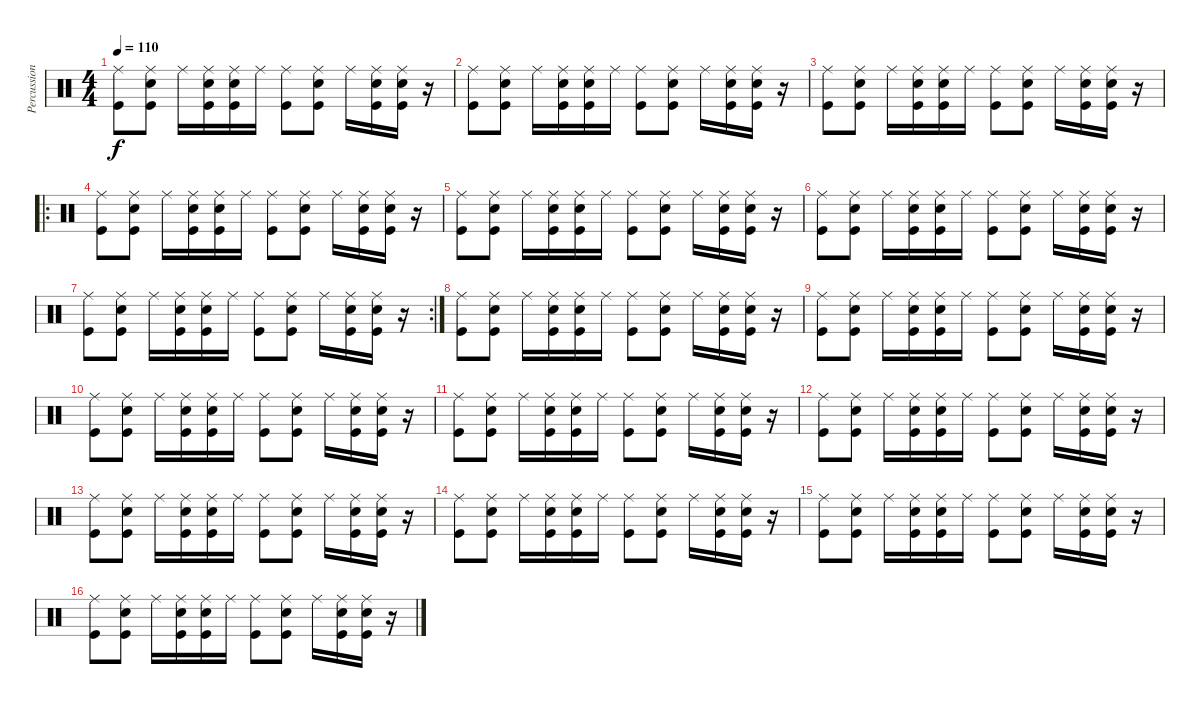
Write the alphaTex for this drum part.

\track ("Percussion" "Percussion") {instrument percussion}
\staff {score}
\articulation defaults
\ts (4 4)
\tempo 110
\clef neutral
\ks c
("Ride (middle)" "Kick (hit)").8{dy f} ("Snare (hit) 2" "Ride (middle)" "Kick (hit)").8 "Ride (middle)".16 ("Snare (hit) 2" "Ride (middle)" "Kick (hit)").16 ("Snare (hit) 2" "Ride (middle)" "Kick (hit)").16 "Ride (middle)".16 ("Ride (middle)" "Kick (hit)").8 ("Snare (hit) 2" "Ride (middle)" "Kick (hit)").8 "Ride (middle)".16 ("Snare (hit) 2" "Ride (middle)" "Kick (hit)").16 ("Snare (hit) 2" "Ride (middle)" "Kick (hit)").16 r.16 |
("Ride (middle)" "Kick (hit)").8 ("Snare (hit) 2" "Ride (middle)" "Kick (hit)").8 "Ride (middle)".16 ("Snare (hit) 2" "Ride (middle)" "Kick (hit)").16 ("Snare (hit) 2" "Ride (middle)" "Kick (hit)").16 "Ride (middle)".16 ("Ride (middle)" "Kick (hit)").8 ("Snare (hit) 2" "Ride (middle)" "Kick (hit)").8 "Ride (middle)".16 ("Snare (hit) 2" "Ride (middle)" "Kick (hit)").16 ("Snare (hit) 2" "Ride (middle)" "Kick (hit)").16 r.16 |
("Ride (middle)" "Kick (hit)").8 ("Snare (hit) 2" "Ride (middle)" "Kick (hit)").8 "Ride (middle)".16 ("Snare (hit) 2" "Ride (middle)" "Kick (hit)").16 ("Snare (hit) 2" "Ride (middle)" "Kick (hit)").16 "Ride (middle)".16 ("Ride (middle)" "Kick (hit)").8 ("Snare (hit) 2" "Ride (middle)" "Kick (hit)").8 "Ride (middle)".16 ("Snare (hit) 2" "Ride (middle)" "Kick (hit)").16 ("Snare (hit) 2" "Ride (middle)" "Kick (hit)").16 r.16 |
\ro
("Ride (middle)" "Kick (hit)").8 ("Snare (hit) 2" "Ride (middle)" "Kick (hit)").8 "Ride (middle)".16 ("Snare (hit) 2" "Ride (middle)" "Kick (hit)").16 ("Snare (hit) 2" "Ride (middle)" "Kick (hit)").16 "Ride (middle)".16 ("Ride (middle)" "Kick (hit)").8 ("Snare (hit) 2" "Ride (middle)" "Kick (hit)").8 "Ride (middle)".16 ("Snare (hit) 2" "Ride (middle)" "Kick (hit)").16 ("Snare (hit) 2" "Ride (middle)" "Kick (hit)").16 r.16 |
("Ride (middle)" "Kick (hit)").8 ("Snare (hit) 2" "Ride (middle)" "Kick (hit)").8 "Ride (middle)".16 ("Snare (hit) 2" "Ride (middle)" "Kick (hit)").16 ("Snare (hit) 2" "Ride (middle)" "Kick (hit)").16 "Ride (middle)".16 ("Ride (middle)" "Kick (hit)").8 ("Snare (hit) 2" "Ride (middle)" "Kick (hit)").8 "Ride (middle)".16 ("Snare (hit) 2" "Ride (middle)" "Kick (hit)").16 ("Snare (hit) 2" "Ride (middle)" "Kick (hit)").16 r.16 |
("Ride (middle)" "Kick (hit)").8 ("Snare (hit) 2" "Ride (middle)" "Kick (hit)").8 "Ride (middle)".16 ("Snare (hit) 2" "Ride (middle)" "Kick (hit)").16 ("Snare (hit) 2" "Ride (middle)" "Kick (hit)").16 "Ride (middle)".16 ("Ride (middle)" "Kick (hit)").8 ("Snare (hit) 2" "Ride (middle)" "Kick (hit)").8 "Ride (middle)".16 ("Snare (hit) 2" "Ride (middle)" "Kick (hit)").16 ("Snare (hit) 2" "Ride (middle)" "Kick (hit)").16 r.16 |
\rc 2
("Ride (middle)" "Kick (hit)").8 ("Snare (hit) 2" "Ride (middle)" "Kick (hit)").8 "Ride (middle)".16 ("Snare (hit) 2" "Ride (middle)" "Kick (hit)").16 ("Snare (hit) 2" "Ride (middle)" "Kick (hit)").16 "Ride (middle)".16 ("Ride (middle)" "Kick (hit)").8 ("Snare (hit) 2" "Ride (middle)" "Kick (hit)").8 "Ride (middle)".16 ("Snare (hit) 2" "Ride (middle)" "Kick (hit)").16 ("Snare (hit) 2" "Ride (middle)" "Kick (hit)").16 r.16 |
("Ride (middle)" "Kick (hit)").8 ("Snare (hit) 2" "Ride (middle)" "Kick (hit)").8 "Ride (middle)".16 ("Snare (hit) 2" "Ride (middle)" "Kick (hit)").16 ("Snare (hit) 2" "Ride (middle)" "Kick (hit)").16 "Ride (middle)".16 ("Ride (middle)" "Kick (hit)").8 ("Snare (hit) 2" "Ride (middle)" "Kick (hit)").8 "Ride (middle)".16 ("Snare (hit) 2" "Ride (middle)" "Kick (hit)").16 ("Snare (hit) 2" "Ride (middle)" "Kick (hit)").16 r.16 |
("Ride (middle)" "Kick (hit)").8 ("Snare (hit) 2" "Ride (middle)" "Kick (hit)").8 "Ride (middle)".16 ("Snare (hit) 2" "Ride (middle)" "Kick (hit)").16 ("Snare (hit) 2" "Ride (middle)" "Kick (hit)").16 "Ride (middle)".16 ("Ride (middle)" "Kick (hit)").8 ("Snare (hit) 2" "Ride (middle)" "Kick (hit)").8 "Ride (middle)".16 ("Snare (hit) 2" "Ride (middle)" "Kick (hit)").16 ("Snare (hit) 2" "Ride (middle)" "Kick (hit)").16 r.16 |
("Ride (middle)" "Kick (hit)").8 ("Snare (hit) 2" "Ride (middle)" "Kick (hit)").8 "Ride (middle)".16 ("Snare (hit) 2" "Ride (middle)" "Kick (hit)").16 ("Snare (hit) 2" "Ride (middle)" "Kick (hit)").16 "Ride (middle)".16 ("Ride (middle)" "Kick (hit)").8 ("Snare (hit) 2" "Ride (middle)" "Kick (hit)").8 "Ride (middle)".16 ("Snare (hit) 2" "Ride (middle)" "Kick (hit)").16 ("Snare (hit) 2" "Ride (middle)" "Kick (hit)").16 r.16 |
("Ride (middle)" "Kick (hit)").8 ("Snare (hit) 2" "Ride (middle)" "Kick (hit)").8 "Ride (middle)".16 ("Snare (hit) 2" "Ride (middle)" "Kick (hit)").16 ("Snare (hit) 2" "Ride (middle)" "Kick (hit)").16 "Ride (middle)".16 ("Ride (middle)" "Kick (hit)").8 ("Snare (hit) 2" "Ride (middle)" "Kick (hit)").8 "Ride (middle)".16 ("Snare (hit) 2" "Ride (middle)" "Kick (hit)").16 ("Snare (hit) 2" "Ride (middle)" "Kick (hit)").16 r.16 |
("Ride (middle)" "Kick (hit)").8 ("Snare (hit) 2" "Ride (middle)" "Kick (hit)").8 "Ride (middle)".16 ("Snare (hit) 2" "Ride (middle)" "Kick (hit)").16 ("Snare (hit) 2" "Ride (middle)" "Kick (hit)").16 "Ride (middle)".16 ("Ride (middle)" "Kick (hit)").8 ("Snare (hit) 2" "Ride (middle)" "Kick (hit)").8 "Ride (middle)".16 ("Snare (hit) 2" "Ride (middle)" "Kick (hit)").16 ("Snare (hit) 2" "Ride (middle)" "Kick (hit)").16 r.16 |
("Ride (middle)" "Kick (hit)").8 ("Snare (hit) 2" "Ride (middle)" "Kick (hit)").8 "Ride (middle)".16 ("Snare (hit) 2" "Ride (middle)" "Kick (hit)").16 ("Snare (hit) 2" "Ride (middle)" "Kick (hit)").16 "Ride (middle)".16 ("Ride (middle)" "Kick (hit)").8 ("Snare (hit) 2" "Ride (middle)" "Kick (hit)").8 "Ride (middle)".16 ("Snare (hit) 2" "Ride (middle)" "Kick (hit)").16 ("Snare (hit) 2" "Ride (middle)" "Kick (hit)").16 r.16 |
("Ride (middle)" "Kick (hit)").8 ("Snare (hit) 2" "Ride (middle)" "Kick (hit)").8 "Ride (middle)".16 ("Snare (hit) 2" "Ride (middle)" "Kick (hit)").16 ("Snare (hit) 2" "Ride (middle)" "Kick (hit)").16 "Ride (middle)".16 ("Ride (middle)" "Kick (hit)").8 ("Snare (hit) 2" "Ride (middle)" "Kick (hit)").8 "Ride (middle)".16 ("Snare (hit) 2" "Ride (middle)" "Kick (hit)").16 ("Snare (hit) 2" "Ride (middle)" "Kick (hit)").16 r.16 |
("Ride (middle)" "Kick (hit)").8 ("Snare (hit) 2" "Ride (middle)" "Kick (hit)").8 "Ride (middle)".16 ("Snare (hit) 2" "Ride (middle)" "Kick (hit)").16 ("Snare (hit) 2" "Ride (middle)" "Kick (hit)").16 "Ride (middle)".16 ("Ride (middle)" "Kick (hit)").8 ("Snare (hit) 2" "Ride (middle)" "Kick (hit)").8 "Ride (middle)".16 ("Snare (hit) 2" "Ride (middle)" "Kick (hit)").16 ("Snare (hit) 2" "Ride (middle)" "Kick (hit)").16 r.16 |
("Ride (middle)" "Kick (hit)").8 ("Snare (hit) 2" "Ride (middle)" "Kick (hit)").8 "Ride (middle)".16 ("Snare (hit) 2" "Ride (middle)" "Kick (hit)").16 ("Snare (hit) 2" "Ride (middle)" "Kick (hit)").16 "Ride (middle)".16 ("Ride (middle)" "Kick (hit)").8 ("Snare (hit) 2" "Ride (middle)" "Kick (hit)").8 "Ride (middle)".16 ("Snare (hit) 2" "Ride (middle)" "Kick (hit)").16 ("Snare (hit) 2" "Ride (middle)" "Kick (hit)").16 r.16
